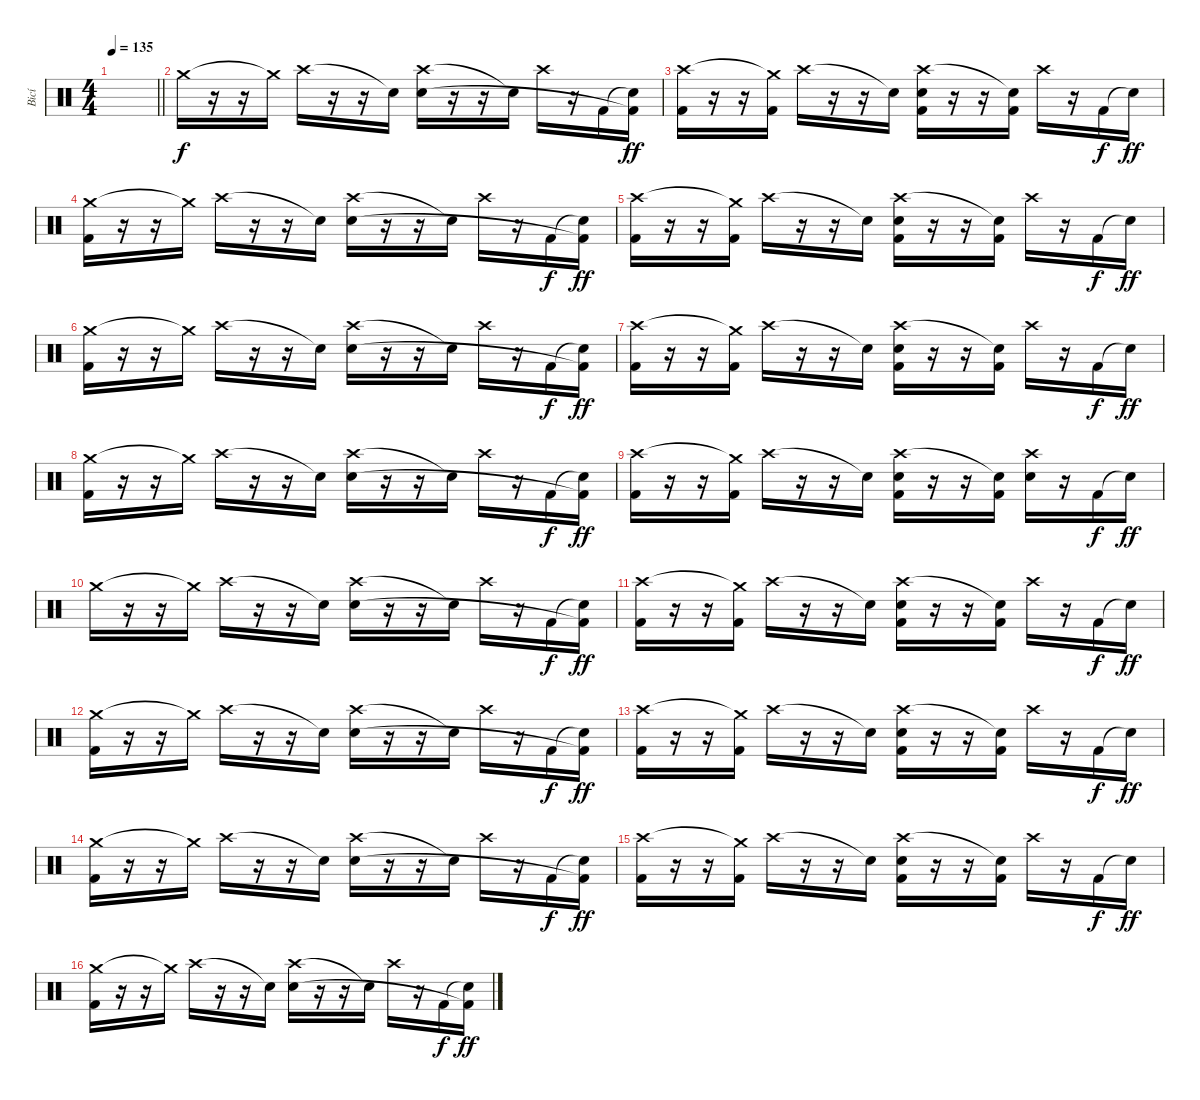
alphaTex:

\track ("Bicí" "Bicí") {instrument percussion}
\staff {score}
\articulation defaults
\ts (4 4)
\tempo 135
\clef neutral
\barLineRight lightlight
\ks c
|
"Crash medium (hit)".16 r.16 r.16 "Crash medium (hit)"{t}.16 "Crash high (hit)".16 r.16 r.16 "Snare (hit)"{t}.16 ("Crash high (hit)" "Electric Snare (hit)").16 r.16 r.16 "Snare (hit)"{t}.16 "Crash high (hit)".16 r.16 "Kick (hit) 2".16{dy f} ("Snare (hit)"{t} "Kick (hit) 2"{t}).16{dy ff} |
("Crash high (hit)" "Kick (hit) 2").16 r.16 r.16 ("Crash medium (hit)"{t} "Kick (hit) 2").16 "Crash high (hit)".16 r.16 r.16 "Snare (hit)"{t}.16 ("Crash high (hit)" "Electric Snare (hit)" "Kick (hit) 2").16 r.16 r.16 ("Snare (hit)"{t} "Kick (hit) 2").16 "Crash high (hit)".16 r.16 "Kick (hit) 2".16{dy f} "Snare (hit)"{t}.16{dy ff} |
("Crash medium (hit)" "Kick (hit) 2").16 r.16 r.16 "Crash medium (hit)"{t}.16 "Crash high (hit)".16 r.16 r.16 "Snare (hit)"{t}.16 ("Crash high (hit)" "Electric Snare (hit)").16 r.16 r.16 "Snare (hit)"{t}.16 "Crash high (hit)".16 r.16 "Kick (hit) 2".16{dy f} ("Snare (hit)"{t} "Kick (hit) 2"{t}).16{dy ff} |
("Crash high (hit)" "Kick (hit) 2").16 r.16 r.16 ("Crash medium (hit)"{t} "Kick (hit) 2").16 "Crash high (hit)".16 r.16 r.16 "Snare (hit)"{t}.16 ("Crash high (hit)" "Electric Snare (hit)" "Kick (hit) 2").16 r.16 r.16 ("Snare (hit)"{t} "Kick (hit) 2").16 "Crash high (hit)".16 r.16 "Kick (hit) 2".16{dy f} "Snare (hit)"{t}.16{dy ff} |
("Crash medium (hit)" "Kick (hit) 2").16 r.16 r.16 "Crash medium (hit)"{t}.16 "Crash high (hit)".16 r.16 r.16 "Snare (hit)"{t}.16 ("Crash high (hit)" "Electric Snare (hit)").16 r.16 r.16 "Snare (hit)"{t}.16 "Crash high (hit)".16 r.16 "Kick (hit) 2".16{dy f} ("Snare (hit)"{t} "Kick (hit) 2"{t}).16{dy ff} |
("Crash high (hit)" "Kick (hit) 2").16 r.16 r.16 ("Crash medium (hit)"{t} "Kick (hit) 2").16 "Crash high (hit)".16 r.16 r.16 "Snare (hit)"{t}.16 ("Crash high (hit)" "Electric Snare (hit)" "Kick (hit) 2").16 r.16 r.16 ("Snare (hit)"{t} "Kick (hit) 2").16 "Crash high (hit)".16 r.16 "Kick (hit) 2".16{dy f} "Snare (hit)"{t}.16{dy ff} |
("Crash medium (hit)" "Kick (hit) 2").16 r.16 r.16 "Crash medium (hit)"{t}.16 "Crash high (hit)".16 r.16 r.16 "Snare (hit)"{t}.16 ("Crash high (hit)" "Electric Snare (hit)").16 r.16 r.16 "Snare (hit)"{t}.16 "Crash high (hit)".16 r.16 "Kick (hit) 2".16{dy f} ("Snare (hit)"{t} "Kick (hit) 2"{t}).16{dy ff} |
("Crash high (hit)" "Kick (hit) 2").16 r.16 r.16 ("Crash medium (hit)"{t} "Kick (hit) 2").16 "Crash high (hit)".16 r.16 r.16 "Snare (hit)"{t}.16 ("Crash high (hit)" "Electric Snare (hit)" "Kick (hit) 2").16 r.16 r.16 ("Snare (hit)"{t} "Kick (hit) 2").16 ("Crash high (hit)" "Electric Snare (hit)").16 r.16 "Kick (hit) 2".16{dy f} "Snare (hit)"{t}.16{dy ff} |
"Crash medium (hit)".16 r.16 r.16 "Crash medium (hit)"{t}.16 "Crash high (hit)".16 r.16 r.16 "Snare (hit)"{t}.16 ("Crash high (hit)" "Electric Snare (hit)").16 r.16 r.16 "Snare (hit)"{t}.16 "Crash high (hit)".16 r.16 "Kick (hit) 2".16{dy f} ("Snare (hit)"{t} "Kick (hit) 2"{t}).16{dy ff} |
("Crash high (hit)" "Kick (hit) 2").16 r.16 r.16 ("Crash medium (hit)"{t} "Kick (hit) 2").16 "Crash high (hit)".16 r.16 r.16 "Snare (hit)"{t}.16 ("Crash high (hit)" "Electric Snare (hit)" "Kick (hit) 2").16 r.16 r.16 ("Snare (hit)"{t} "Kick (hit) 2").16 "Crash high (hit)".16 r.16 "Kick (hit) 2".16{dy f} "Snare (hit)"{t}.16{dy ff} |
("Crash medium (hit)" "Kick (hit) 2").16 r.16 r.16 "Crash medium (hit)"{t}.16 "Crash high (hit)".16 r.16 r.16 "Snare (hit)"{t}.16 ("Crash high (hit)" "Electric Snare (hit)").16 r.16 r.16 "Snare (hit)"{t}.16 "Crash high (hit)".16 r.16 "Kick (hit) 2".16{dy f} ("Snare (hit)"{t} "Kick (hit) 2"{t}).16{dy ff} |
("Crash high (hit)" "Kick (hit) 2").16 r.16 r.16 ("Crash medium (hit)"{t} "Kick (hit) 2").16 "Crash high (hit)".16 r.16 r.16 "Snare (hit)"{t}.16 ("Crash high (hit)" "Electric Snare (hit)" "Kick (hit) 2").16 r.16 r.16 ("Snare (hit)"{t} "Kick (hit) 2").16 "Crash high (hit)".16 r.16 "Kick (hit) 2".16{dy f} "Snare (hit)"{t}.16{dy ff} |
("Crash medium (hit)" "Kick (hit) 2").16 r.16 r.16 "Crash medium (hit)"{t}.16 "Crash high (hit)".16 r.16 r.16 "Snare (hit)"{t}.16 ("Crash high (hit)" "Electric Snare (hit)").16 r.16 r.16 "Snare (hit)"{t}.16 "Crash high (hit)".16 r.16 "Kick (hit) 2".16{dy f} ("Snare (hit)"{t} "Kick (hit) 2"{t}).16{dy ff} |
("Crash high (hit)" "Kick (hit) 2").16 r.16 r.16 ("Crash medium (hit)"{t} "Kick (hit) 2").16 "Crash high (hit)".16 r.16 r.16 "Snare (hit)"{t}.16 ("Crash high (hit)" "Electric Snare (hit)" "Kick (hit) 2").16 r.16 r.16 ("Snare (hit)"{t} "Kick (hit) 2").16 "Crash high (hit)".16 r.16 "Kick (hit) 2".16{dy f} "Snare (hit)"{t}.16{dy ff} |
("Crash medium (hit)" "Kick (hit) 2").16 r.16 r.16 "Crash medium (hit)"{t}.16 "Crash high (hit)".16 r.16 r.16 "Snare (hit)"{t}.16 ("Crash high (hit)" "Electric Snare (hit)").16 r.16 r.16 "Snare (hit)"{t}.16 "Crash high (hit)".16 r.16 "Kick (hit) 2".16{dy f} ("Snare (hit)"{t} "Kick (hit) 2"{t}).16{dy ff}
